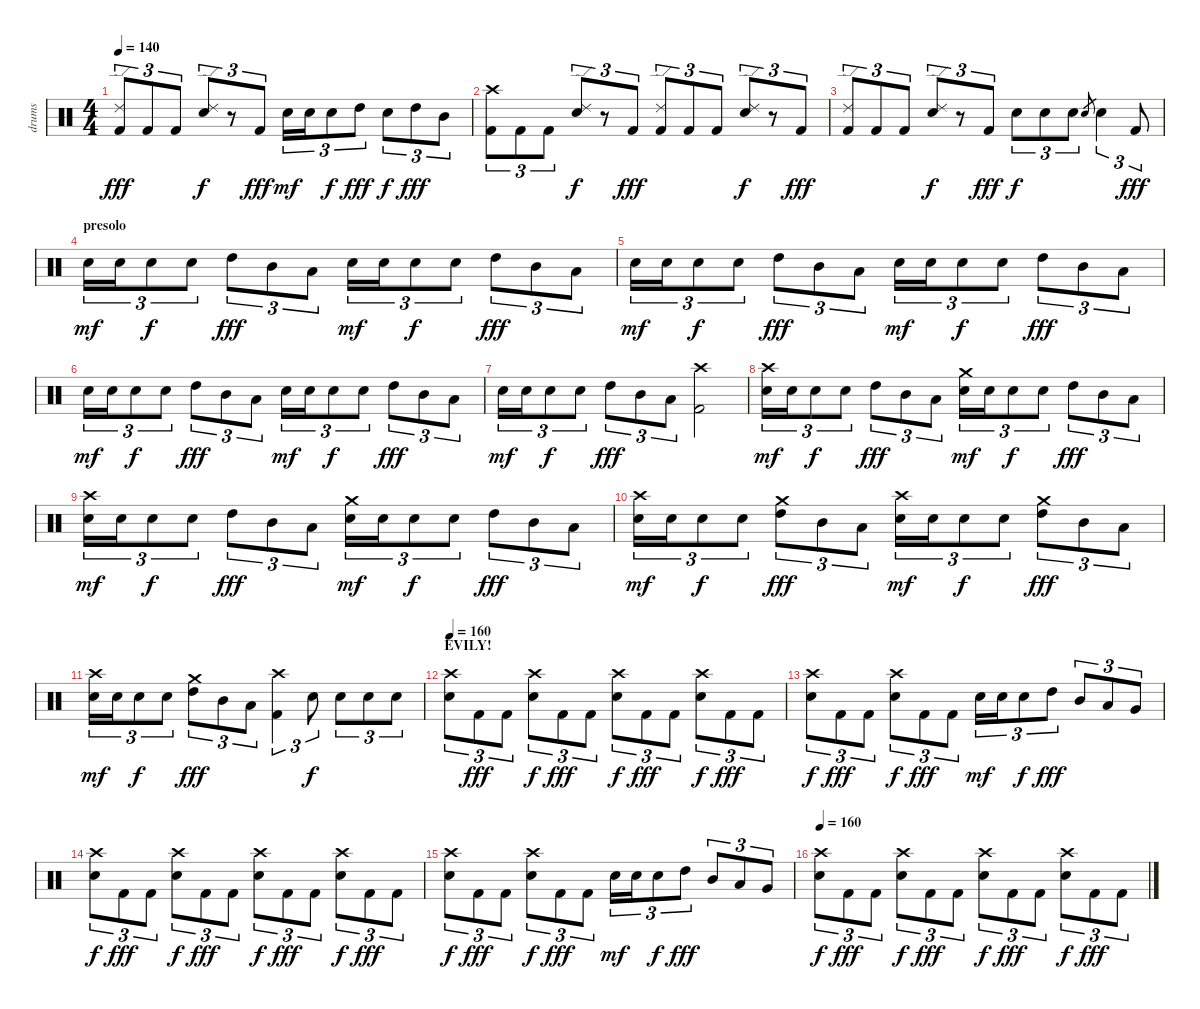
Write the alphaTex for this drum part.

\track ("drums" "drums") {instrument percussion}
\staff {score}
\articulation defaults
\ts (4 4)
\tempo 140
\clef neutral
\ks c
("Ride (edge) 2" "Kick (hit) 2").8{tu (3 2) dy fff} "Kick (hit) 2".8{tu (3 2)} "Kick (hit) 2".8{tu (3 2)} ("Ride (edge) 2" "Snare (hit) 2").8{tu (3 2) dy f} r.8{tu (3 2)} "Kick (hit) 2".8{tu (3 2) dy fff} "Snare (hit) 2".16{tu (3 2) dy mf} "Snare (hit) 2".16{tu (3 2)} "Snare (hit) 2".8{tu (3 2) dy f} "High Tom (hit)".8{tu (3 2) dy fff} "Snare (hit) 2".8{tu (3 2) dy f} "High Tom (hit)".8{tu (3 2) dy fff} "Mid Tom (hit)".8{tu (3 2)} |
("Crash high (hit)" "Kick (hit) 2").8{tu (3 2)} "Kick (hit) 2".8{tu (3 2)} "Kick (hit) 2".8{tu (3 2)} ("Ride (edge) 2" "Snare (hit) 2").8{tu (3 2) dy f} r.8{tu (3 2)} "Kick (hit) 2".8{tu (3 2) dy fff} ("Ride (edge) 2" "Kick (hit) 2").8{tu (3 2)} "Kick (hit) 2".8{tu (3 2)} "Kick (hit) 2".8{tu (3 2)} ("Ride (edge) 2" "Snare (hit) 2").8{tu (3 2) dy f} r.8{tu (3 2)} "Kick (hit) 2".8{tu (3 2) dy fff} |
("Ride (edge) 2" "Kick (hit) 2").8{tu (3 2)} "Kick (hit) 2".8{tu (3 2)} "Kick (hit) 2".8{tu (3 2)} ("Ride (edge) 2" "Snare (hit) 2").8{tu (3 2) dy f} r.8{tu (3 2)} "Kick (hit) 2".8{tu (3 2) dy fff} "Snare (hit) 2".8{tu (3 2) dy f} "Snare (hit) 2".8{tu (3 2)} "Snare (hit) 2".8{tu (3 2)} "Snare (hit) 2".8{gr} "Snare (hit) 2".4{tu (3 2)} "Kick (hit) 2".8{tu (3 2) dy fff} |
\section ("" "presolo")
"Snare (hit) 2".16{tu (3 2) dy mf} "Snare (hit) 2".16{tu (3 2)} "Snare (hit) 2".8{tu (3 2) dy f} "Snare (hit) 2".8{tu (3 2)} "High Tom (hit)".8{tu (3 2) dy fff} "Mid Tom (hit)".8{tu (3 2)} "Low Tom (hit)".8{tu (3 2)} "Snare (hit) 2".16{tu (3 2) dy mf} "Snare (hit) 2".16{tu (3 2)} "Snare (hit) 2".8{tu (3 2) dy f} "Snare (hit) 2".8{tu (3 2)} "High Tom (hit)".8{tu (3 2) dy fff} "Mid Tom (hit)".8{tu (3 2)} "Low Tom (hit)".8{tu (3 2)} |
"Snare (hit) 2".16{tu (3 2) dy mf} "Snare (hit) 2".16{tu (3 2)} "Snare (hit) 2".8{tu (3 2) dy f} "Snare (hit) 2".8{tu (3 2)} "High Tom (hit)".8{tu (3 2) dy fff} "Mid Tom (hit)".8{tu (3 2)} "Low Tom (hit)".8{tu (3 2)} "Snare (hit) 2".16{tu (3 2) dy mf} "Snare (hit) 2".16{tu (3 2)} "Snare (hit) 2".8{tu (3 2) dy f} "Snare (hit) 2".8{tu (3 2)} "High Tom (hit)".8{tu (3 2) dy fff} "Mid Tom (hit)".8{tu (3 2)} "Low Tom (hit)".8{tu (3 2)} |
"Snare (hit) 2".16{tu (3 2) dy mf} "Snare (hit) 2".16{tu (3 2)} "Snare (hit) 2".8{tu (3 2) dy f} "Snare (hit) 2".8{tu (3 2)} "High Tom (hit)".8{tu (3 2) dy fff} "Mid Tom (hit)".8{tu (3 2)} "Low Tom (hit)".8{tu (3 2)} "Snare (hit) 2".16{tu (3 2) dy mf} "Snare (hit) 2".16{tu (3 2)} "Snare (hit) 2".8{tu (3 2) dy f} "Snare (hit) 2".8{tu (3 2)} "High Tom (hit)".8{tu (3 2) dy fff} "Mid Tom (hit)".8{tu (3 2)} "Low Tom (hit)".8{tu (3 2)} |
"Snare (hit) 2".16{tu (3 2) dy mf} "Snare (hit) 2".16{tu (3 2)} "Snare (hit) 2".8{tu (3 2) dy f} "Snare (hit) 2".8{tu (3 2)} "High Tom (hit)".8{tu (3 2) dy fff} "Mid Tom (hit)".8{tu (3 2)} "Low Tom (hit)".8{tu (3 2)} ("Crash high (hit)" "Kick (hit) 2").2 |
("Crash high (hit)" "Snare (hit) 2").16{tu (3 2) dy mf} "Snare (hit) 2".16{tu (3 2)} "Snare (hit) 2".8{tu (3 2) dy f} "Snare (hit) 2".8{tu (3 2)} "High Tom (hit)".8{tu (3 2) dy fff} "Mid Tom (hit)".8{tu (3 2)} "Low Tom (hit)".8{tu (3 2)} ("Crash medium (hit)" "Snare (hit) 2").16{tu (3 2) dy mf} "Snare (hit) 2".16{tu (3 2)} "Snare (hit) 2".8{tu (3 2) dy f} "Snare (hit) 2".8{tu (3 2)} "High Tom (hit)".8{tu (3 2) dy fff} "Mid Tom (hit)".8{tu (3 2)} "Low Tom (hit)".8{tu (3 2)} |
("Crash high (hit)" "Snare (hit) 2").16{tu (3 2) dy mf} "Snare (hit) 2".16{tu (3 2)} "Snare (hit) 2".8{tu (3 2) dy f} "Snare (hit) 2".8{tu (3 2)} "High Tom (hit)".8{tu (3 2) dy fff} "Mid Tom (hit)".8{tu (3 2)} "Low Tom (hit)".8{tu (3 2)} ("Crash medium (hit)" "Snare (hit) 2").16{tu (3 2) dy mf} "Snare (hit) 2".16{tu (3 2)} "Snare (hit) 2".8{tu (3 2) dy f} "Snare (hit) 2".8{tu (3 2)} "High Tom (hit)".8{tu (3 2) dy fff} "Mid Tom (hit)".8{tu (3 2)} "Low Tom (hit)".8{tu (3 2)} |
("Crash high (hit)" "Snare (hit) 2").16{tu (3 2) dy mf} "Snare (hit) 2".16{tu (3 2)} "Snare (hit) 2".8{tu (3 2) dy f} "Snare (hit) 2".8{tu (3 2)} ("Crash medium (hit)" "High Tom (hit)").8{tu (3 2) dy fff} "Mid Tom (hit)".8{tu (3 2)} "Low Tom (hit)".8{tu (3 2)} ("Crash high (hit)" "Snare (hit) 2").16{tu (3 2) dy mf} "Snare (hit) 2".16{tu (3 2)} "Snare (hit) 2".8{tu (3 2) dy f} "Snare (hit) 2".8{tu (3 2)} ("Crash medium (hit)" "High Tom (hit)").8{tu (3 2) dy fff} "Mid Tom (hit)".8{tu (3 2)} "Low Tom (hit)".8{tu (3 2)} |
("Crash high (hit)" "Snare (hit) 2").16{tu (3 2) dy mf} "Snare (hit) 2".16{tu (3 2)} "Snare (hit) 2".8{tu (3 2) dy f} "Snare (hit) 2".8{tu (3 2)} ("Crash medium (hit)" "High Tom (hit)").8{tu (3 2) dy fff} "Mid Tom (hit)".8{tu (3 2)} "Low Tom (hit)".8{tu (3 2)} ("Crash high (hit)" "Kick (hit) 2").4{tu (3 2)} "Snare (hit) 2".8{tu (3 2) dy f} "Snare (hit) 2".8{tu (3 2)} "Snare (hit) 2".8{tu (3 2)} "Snare (hit) 2".8{tu (3 2)} |
\section ("" "EVILY!")
\tempo 160
("Crash high (hit)" "Snare (hit) 2").8{tu (3 2)} "Kick (hit) 2".8{tu (3 2) dy fff} "Kick (hit) 2".8{tu (3 2)} ("Crash high (hit)" "Snare (hit) 2").8{tu (3 2) dy f} "Kick (hit) 2".8{tu (3 2) dy fff} "Kick (hit) 2".8{tu (3 2)} ("Crash high (hit)" "Snare (hit) 2").8{tu (3 2) dy f} "Kick (hit) 2".8{tu (3 2) dy fff} "Kick (hit) 2".8{tu (3 2)} ("Crash high (hit)" "Snare (hit) 2").8{tu (3 2) dy f} "Kick (hit) 2".8{tu (3 2) dy fff} "Kick (hit) 2".8{tu (3 2)} |
("Crash high (hit)" "Snare (hit) 2").8{tu (3 2) dy f} "Kick (hit) 2".8{tu (3 2) dy fff} "Kick (hit) 2".8{tu (3 2)} ("Crash high (hit)" "Snare (hit) 2").8{tu (3 2) dy f} "Kick (hit) 2".8{tu (3 2) dy fff} "Kick (hit) 2".8{tu (3 2)} "Snare (hit) 2".16{tu (3 2) dy mf} "Snare (hit) 2".16{tu (3 2)} "Snare (hit) 2".8{tu (3 2) dy f} "High Tom (hit)".8{tu (3 2) dy fff} "Mid Tom (hit)".8{tu (3 2)} "Low Tom (hit)".8{tu (3 2)} "Very Low Tom (hit)".8{tu (3 2)} |
("Crash high (hit)" "Snare (hit) 2").8{tu (3 2) dy f} "Kick (hit) 2".8{tu (3 2) dy fff} "Kick (hit) 2".8{tu (3 2)} ("Crash high (hit)" "Snare (hit) 2").8{tu (3 2) dy f} "Kick (hit) 2".8{tu (3 2) dy fff} "Kick (hit) 2".8{tu (3 2)} ("Crash high (hit)" "Snare (hit) 2").8{tu (3 2) dy f} "Kick (hit) 2".8{tu (3 2) dy fff} "Kick (hit) 2".8{tu (3 2)} ("Crash high (hit)" "Snare (hit) 2").8{tu (3 2) dy f} "Kick (hit) 2".8{tu (3 2) dy fff} "Kick (hit) 2".8{tu (3 2)} |
("Crash high (hit)" "Snare (hit) 2").8{tu (3 2) dy f} "Kick (hit) 2".8{tu (3 2) dy fff} "Kick (hit) 2".8{tu (3 2)} ("Crash high (hit)" "Snare (hit) 2").8{tu (3 2) dy f} "Kick (hit) 2".8{tu (3 2) dy fff} "Kick (hit) 2".8{tu (3 2)} "Snare (hit) 2".16{tu (3 2) dy mf} "Snare (hit) 2".16{tu (3 2)} "Snare (hit) 2".8{tu (3 2) dy f} "High Tom (hit)".8{tu (3 2) dy fff} "Mid Tom (hit)".8{tu (3 2)} "Low Tom (hit)".8{tu (3 2)} "Very Low Tom (hit)".8{tu (3 2)} |
\tempo 160
("Crash high (hit)" "Snare (hit) 2").8{tu (3 2) dy f} "Kick (hit) 2".8{tu (3 2) dy fff} "Kick (hit) 2".8{tu (3 2)} ("Crash high (hit)" "Snare (hit) 2").8{tu (3 2) dy f} "Kick (hit) 2".8{tu (3 2) dy fff} "Kick (hit) 2".8{tu (3 2)} ("Crash high (hit)" "Snare (hit) 2").8{tu (3 2) dy f} "Kick (hit) 2".8{tu (3 2) dy fff} "Kick (hit) 2".8{tu (3 2)} ("Crash high (hit)" "Snare (hit) 2").8{tu (3 2) dy f} "Kick (hit) 2".8{tu (3 2) dy fff} "Kick (hit) 2".8{tu (3 2)}
